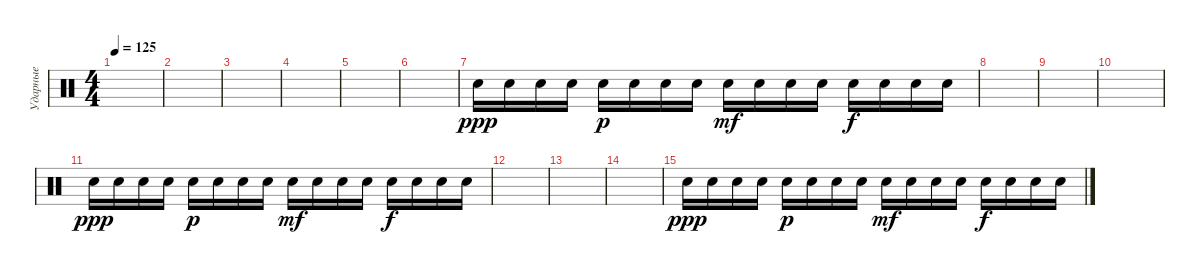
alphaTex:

\track ("Ударные" "Ударные") {instrument percussion}
\staff {score}
\articulation defaults
\ts (4 4)
\tempo 125
\clef neutral
\ks c
|
|
|
|
|
|
"Snare (hit) 2".16{dy ppp} "Snare (hit) 2".16 "Snare (hit) 2".16 "Snare (hit) 2".16 "Snare (hit) 2".16{dy p} "Snare (hit) 2".16 "Snare (hit) 2".16 "Snare (hit) 2".16 "Snare (hit) 2".16{dy mf} "Snare (hit) 2".16 "Snare (hit) 2".16 "Snare (hit) 2".16 "Snare (hit) 2".16{dy f} "Snare (hit) 2".16 "Snare (hit) 2".16 "Snare (hit) 2".16 |
|
|
|
"Snare (hit) 2".16{dy ppp} "Snare (hit) 2".16 "Snare (hit) 2".16 "Snare (hit) 2".16 "Snare (hit) 2".16{dy p} "Snare (hit) 2".16 "Snare (hit) 2".16 "Snare (hit) 2".16 "Snare (hit) 2".16{dy mf} "Snare (hit) 2".16 "Snare (hit) 2".16 "Snare (hit) 2".16 "Snare (hit) 2".16{dy f} "Snare (hit) 2".16 "Snare (hit) 2".16 "Snare (hit) 2".16 |
|
|
|
"Snare (hit) 2".16{dy ppp} "Snare (hit) 2".16 "Snare (hit) 2".16 "Snare (hit) 2".16 "Snare (hit) 2".16{dy p} "Snare (hit) 2".16 "Snare (hit) 2".16 "Snare (hit) 2".16 "Snare (hit) 2".16{dy mf} "Snare (hit) 2".16 "Snare (hit) 2".16 "Snare (hit) 2".16 "Snare (hit) 2".16{dy f} "Snare (hit) 2".16 "Snare (hit) 2".16 "Snare (hit) 2".16
